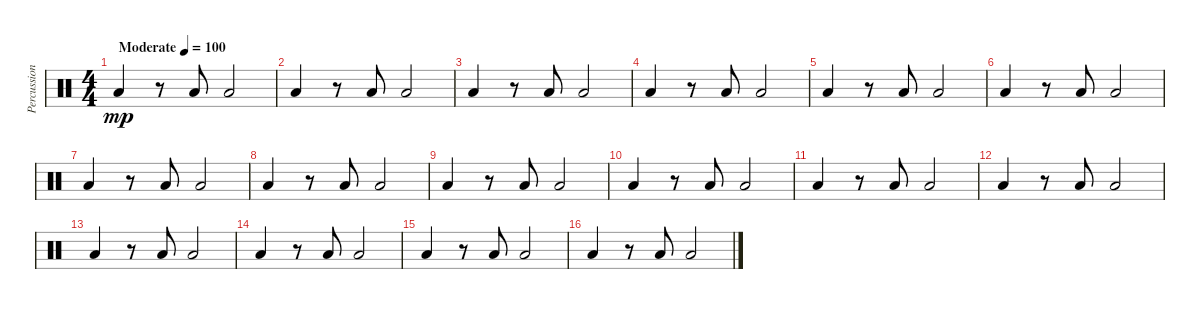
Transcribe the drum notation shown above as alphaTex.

\track ("Percussion" "Percussion") {instrument percussion}
\staff {score}
\articulation defaults
\ts (4 4)
\tempo (100 "Moderate")
\clef neutral
\ks c "Low Floor Tom (hit)".4{dy mp}
r.8 "Low Tom (hit)".8 "Low Floor Tom (hit)".2 |
"Low Floor Tom (hit)".4 r.8 "Low Tom (hit)".8 "Low Floor Tom (hit)".2 |
"Low Floor Tom (hit)".4 r.8 "Low Tom (hit)".8 "Low Floor Tom (hit)".2 |
"Low Floor Tom (hit)".4 r.8 "Low Tom (hit)".8 "Low Floor Tom (hit)".2 |
"Low Floor Tom (hit)".4 r.8 "Low Tom (hit)".8 "Low Floor Tom (hit)".2 |
"Low Floor Tom (hit)".4 r.8 "Low Tom (hit)".8 "Low Floor Tom (hit)".2 |
"Low Floor Tom (hit)".4 r.8 "Low Tom (hit)".8 "Low Floor Tom (hit)".2 |
"Low Floor Tom (hit)".4 r.8 "Low Tom (hit)".8 "Low Floor Tom (hit)".2 |
"Low Floor Tom (hit)".4 r.8 "Low Tom (hit)".8 "Low Floor Tom (hit)".2 |
"Low Floor Tom (hit)".4 r.8 "Low Tom (hit)".8 "Low Floor Tom (hit)".2 |
"Low Floor Tom (hit)".4 r.8 "Low Tom (hit)".8 "Low Floor Tom (hit)".2 |
"Low Floor Tom (hit)".4 r.8 "Low Tom (hit)".8 "Low Floor Tom (hit)".2 |
"Low Floor Tom (hit)".4 r.8 "Low Tom (hit)".8 "Low Floor Tom (hit)".2 |
"Low Floor Tom (hit)".4 r.8 "Low Tom (hit)".8 "Low Floor Tom (hit)".2 |
"Low Floor Tom (hit)".4 r.8 "Low Tom (hit)".8 "Low Floor Tom (hit)".2 |
"Low Floor Tom (hit)".4 r.8 "Low Tom (hit)".8 "Low Floor Tom (hit)".2
